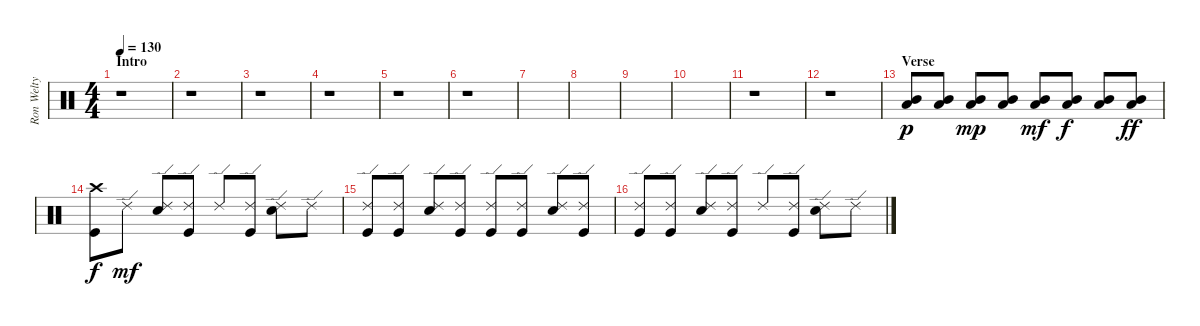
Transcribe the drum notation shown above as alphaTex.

\track ("Ron Welty" "Ron Welty") {instrument percussion}
\staff {score}
\articulation defaults
\ts (4 4)
\section ("" "Intro")
\tempo 130
\clef neutral
\ks c
r.1{dy p} |
r.1 |
r.1 |
r.1 |
r.1 |
r.1 |
|
|
|
|
r.1 |
r.1 |
\section ("" "Verse")
("Mid Tom (hit)" "Low Floor Tom (hit)").8 ("Mid Tom (hit)" "Low Floor Tom (hit)").8 ("Mid Tom (hit)" "Low Floor Tom (hit)").8{dy mp} ("Mid Tom (hit)" "Low Floor Tom (hit)").8 ("Mid Tom (hit)" "Low Floor Tom (hit)").8{dy mf} ("Mid Tom (hit)" "Low Floor Tom (hit)").8{dy f} ("Mid Tom (hit)" "Low Floor Tom (hit)").8 ("Mid Tom (hit)" "Low Floor Tom (hit)").8{dy ff} |
("Kick (hit)" "Crash high (hit)").8{dy f} "Ride (edge) 2".8{dy mf} ("Electric Snare (hit)" "Ride (edge) 2").8 ("Kick (hit)" "Ride (edge) 2").8 "Ride (edge) 2".8 ("Kick (hit)" "Ride (edge) 2").8 ("Electric Snare (hit)" "Ride (edge) 2").8 "Ride (edge) 2".8 |
("Kick (hit)" "Ride (edge) 2").8 ("Kick (hit)" "Ride (edge) 2").8 ("Electric Snare (hit)" "Ride (edge) 2").8 ("Kick (hit)" "Ride (edge) 2").8 ("Kick (hit)" "Ride (edge) 2").8 ("Kick (hit)" "Ride (edge) 2").8 ("Electric Snare (hit)" "Ride (edge) 2").8 ("Kick (hit)" "Ride (edge) 2").8 |
("Kick (hit)" "Ride (edge) 2").8 ("Kick (hit)" "Ride (edge) 2").8 ("Electric Snare (hit)" "Ride (edge) 2").8 ("Kick (hit)" "Ride (edge) 2").8 "Ride (edge) 2".8 ("Kick (hit)" "Ride (edge) 2").8 ("Electric Snare (hit)" "Ride (edge) 2").8 "Ride (edge) 2".8
